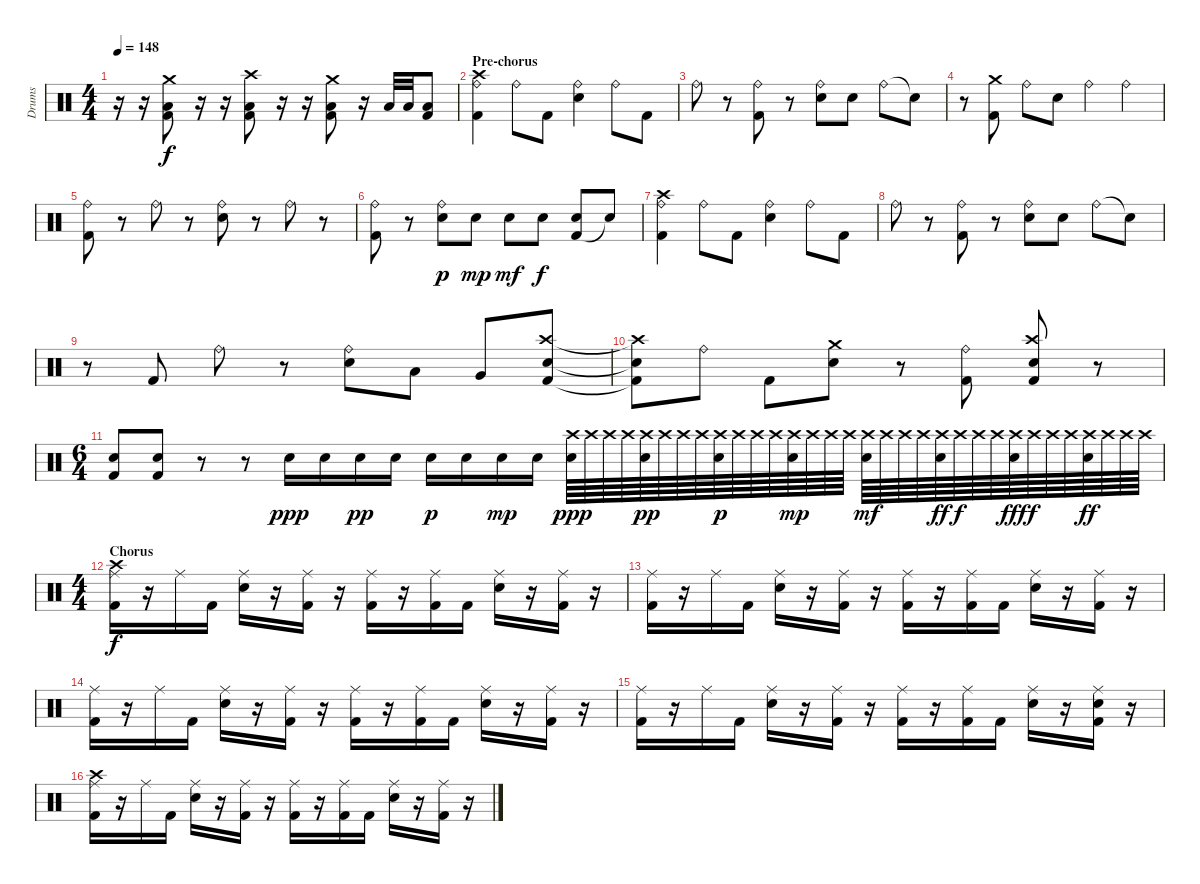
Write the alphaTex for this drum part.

\track ("Drums" "Drums") {instrument percussion}
\staff {score}
\articulation defaults
\ts (4 4)
\tempo 148
\clef neutral
\ks c
r.16{dy f} r.16 ("Kick (hit) 2" "Low Floor Tom (hit)" "Crash medium (hit)").8 r.16 r.16 ("Kick (hit) 2" "Low Floor Tom (hit)" "Crash high (hit)").8 r.16 r.16 ("Kick (hit) 2" "Low Floor Tom (hit)" "Crash medium (hit)").8 r.16 "Low Tom (hit)".32 "Low Tom (hit)".32 ("Kick (hit) 2" "Low Floor Tom (hit)").8 |
\section ("" "Pre-chorus")
("Kick (hit) 2" "Ride (bell)" "Crash high (hit)").4 "Ride (bell)".8 "Kick (hit) 2".8 ("Electric Snare (hit)" "Ride (bell)").4 "Ride (bell)".8 "Kick (hit) 2".8 |
"Ride (bell)".8 r.8 ("Kick (hit) 2" "Ride (bell)").8 r.8 ("Electric Snare (hit)" "Ride (bell)").8 "Electric Snare (hit)".8 "Ride (bell)".8 "Snare (hit)"{t}.8 |
r.8 ("Kick (hit) 2" "Crash medium (hit)").8 "Ride (bell)".8 "Electric Snare (hit)".8 "Ride (bell)".4 "Ride (bell)".4 |
("Kick (hit) 2" "Ride (bell)").8 r.8 "Ride (bell)".8 r.8 ("Electric Snare (hit)" "Ride (bell)").8 r.8 "Ride (bell)".8 r.8 |
("Kick (hit) 2" "Ride (bell)").8 r.8 ("Electric Snare (hit)" "Ride (bell)").8{dy p} "Electric Snare (hit)".8{dy mp} "Electric Snare (hit)".8{dy mf} "Electric Snare (hit)".8{dy f} ("Kick (hit) 2" "Electric Snare (hit)").8 "Electric Snare (hit)"{t}.8 |
("Kick (hit) 2" "Ride (bell)" "Crash high (hit)").4 "Ride (bell)".8 "Kick (hit) 2".8 ("Electric Snare (hit)" "Ride (bell)").4 "Ride (bell)".8 "Kick (hit) 2".8 |
"Ride (bell)".8 r.8 ("Kick (hit) 2" "Ride (bell)").8 r.8 ("Electric Snare (hit)" "Ride (bell)").8 "Electric Snare (hit)".8 "Ride (bell)".8 "Snare (hit)"{t}.8 |
r.8 "Kick (hit) 2".8 "Ride (bell)".8 r.8 ("Electric Snare (hit)" "Ride (bell)").8 "Low Tom (hit)".8 "Very Low Tom (hit)".8 ("Kick (hit) 2" "Electric Snare (hit)" "Crash high (hit)").8 |
("Kick (hit) 2"{t} "Electric Snare (hit)"{t} "Crash high (hit)"{t}).8 "Ride (bell)".8 "Kick (hit) 2".8 ("Electric Snare (hit)" "Crash medium (hit)").8 r.8 ("Kick (hit) 2" "Ride (bell)").8 ("Kick (hit) 2" "Electric Snare (hit)" "Crash high (hit)").8 r.8 |
\ts (6 4)
("Kick (hit) 2" "Electric Snare (hit)").8 ("Kick (hit) 2" "Electric Snare (hit)").8 r.8 r.8 "Electric Snare (hit)".16{dy ppp} "Electric Snare (hit)".16 "Electric Snare (hit)".16{dy pp} "Electric Snare (hit)".16 "Electric Snare (hit)".16{dy p} "Electric Snare (hit)".16 "Electric Snare (hit)".16{dy mp} "Electric Snare (hit)".16 ("Electric Snare (hit)" "Crash high (hit)").64{dy ppp} "Crash high (hit)".64 "Crash high (hit)".64 "Crash high (hit)".64 ("Electric Snare (hit)" "Crash high (hit)").64{dy pp} "Crash high (hit)".64 "Crash high (hit)".64 "Crash high (hit)".64 ("Electric Snare (hit)" "Crash high (hit)").64{dy p} "Crash high (hit)".64 "Crash high (hit)".64 "Crash high (hit)".64 ("Electric Snare (hit)" "Crash high (hit)").64{dy mp} "Crash high (hit)".64 "Crash high (hit)".64 "Crash high (hit)".64 ("Electric Snare (hit)" "Crash high (hit)").64{dy mf} "Crash high (hit)".64 "Crash high (hit)".64 "Crash high (hit)".64 ("Electric Snare (hit)" "Crash high (hit)").64{dy ff} "Crash high (hit)".64{dy f} "Crash high (hit)".64 "Crash high (hit)".64 ("Electric Snare (hit)" "Crash high (hit)").64{dy fff} "Crash high (hit)".64{dy f} "Crash high (hit)".64 "Crash high (hit)".64 ("Electric Snare (hit)" "Crash high (hit)").64{dy ff} "Crash high (hit)".64 "Crash high (hit)".64 "Crash high (hit)".64 |
\ts (4 4)
\section ("" "Chorus")
("Kick (hit) 2" "Ride (middle)" "Crash high (hit)").16{dy f} r.16 "Ride (middle)".16 "Kick (hit) 2".16 ("Electric Snare (hit)" "Ride (middle)").16 r.16 ("Kick (hit) 2" "Ride (middle)").16 r.16 ("Kick (hit) 2" "Ride (middle)").16 r.16 ("Kick (hit) 2" "Ride (middle)").16 "Kick (hit) 2".16 ("Electric Snare (hit)" "Ride (middle)").16 r.16 ("Kick (hit) 2" "Ride (middle)").16 r.16 |
("Kick (hit) 2" "Ride (middle)").16 r.16 "Ride (middle)".16 "Kick (hit) 2".16 ("Electric Snare (hit)" "Ride (middle)").16 r.16 ("Kick (hit) 2" "Ride (middle)").16 r.16 ("Kick (hit) 2" "Ride (middle)").16 r.16 ("Kick (hit) 2" "Ride (middle)").16 "Kick (hit) 2".16 ("Electric Snare (hit)" "Ride (middle)").16 r.16 ("Kick (hit) 2" "Ride (middle)").16 r.16 |
("Kick (hit) 2" "Ride (middle)").16 r.16 "Ride (middle)".16 "Kick (hit) 2".16 ("Electric Snare (hit)" "Ride (middle)").16 r.16 ("Kick (hit) 2" "Ride (middle)").16 r.16 ("Kick (hit) 2" "Ride (middle)").16 r.16 ("Kick (hit) 2" "Ride (middle)").16 "Kick (hit) 2".16 ("Electric Snare (hit)" "Ride (middle)").16 r.16 ("Kick (hit) 2" "Ride (middle)").16 r.16 |
("Kick (hit) 2" "Ride (middle)").16 r.16 "Ride (middle)".16 "Kick (hit) 2".16 ("Electric Snare (hit)" "Ride (middle)").16 r.16 ("Kick (hit) 2" "Ride (middle)").16 r.16 ("Kick (hit) 2" "Ride (middle)").16 r.16 ("Kick (hit) 2" "Ride (middle)").16 "Kick (hit) 2".16 ("Electric Snare (hit)" "Ride (middle)").16 r.16 ("Kick (hit) 2" "Electric Snare (hit)" "Ride (middle)").16 r.16 |
("Kick (hit) 2" "Ride (middle)" "Crash high (hit)").16 r.16 "Ride (middle)".16 "Kick (hit) 2".16 ("Electric Snare (hit)" "Ride (middle)").16 r.16 ("Kick (hit) 2" "Ride (middle)").16 r.16 ("Kick (hit) 2" "Ride (middle)").16 r.16 ("Kick (hit) 2" "Ride (middle)").16 "Kick (hit) 2".16 ("Electric Snare (hit)" "Ride (middle)").16 r.16 ("Kick (hit) 2" "Ride (middle)").16 r.16
